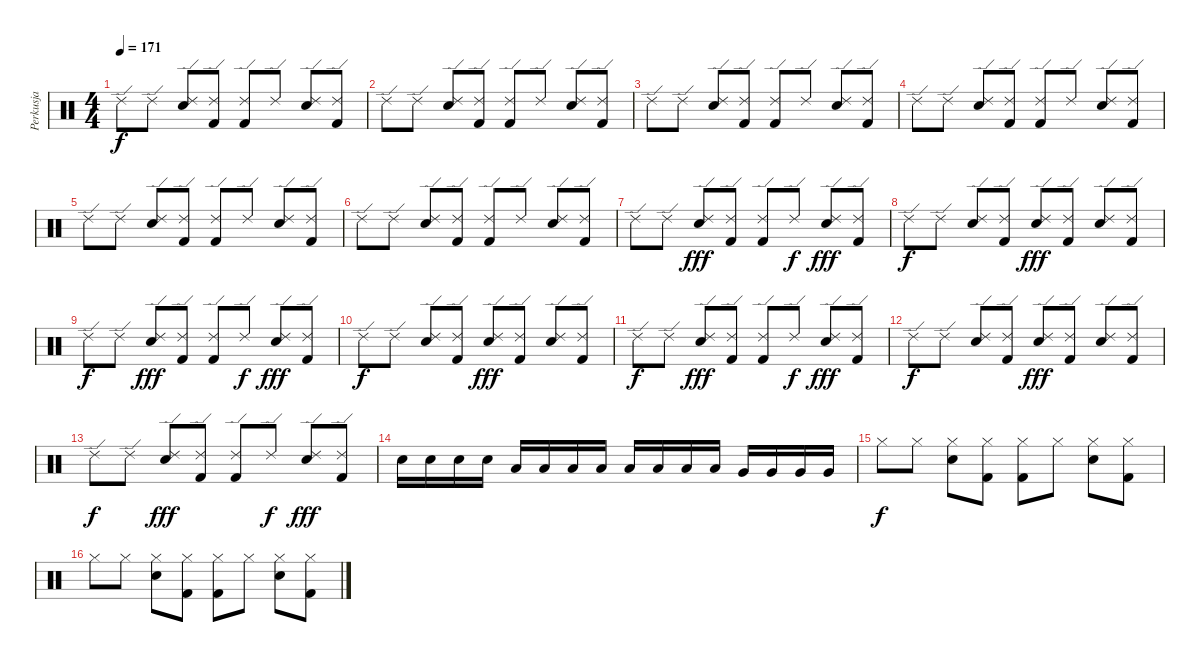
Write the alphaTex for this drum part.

\track ("Perkusja" "Perkusja") {instrument percussion}
\staff {score}
\articulation defaults
\ts (4 4)
\tempo 171
\clef neutral
\ks c "Ride (edge) 2".8{dy f} "Ride (edge) 2".8
("Ride (edge) 2" "Snare (hit) 2").8 ("Ride (edge) 2" "Kick (hit) 2").8 ("Ride (edge) 2" "Kick (hit) 2").8 "Ride (edge) 2".8 ("Ride (edge) 2" "Snare (hit) 2").8 ("Ride (edge) 2" "Kick (hit) 2").8 |
"Ride (edge) 2".8 "Ride (edge) 2".8 ("Ride (edge) 2" "Snare (hit) 2").8 ("Ride (edge) 2" "Kick (hit) 2").8 ("Ride (edge) 2" "Kick (hit) 2").8 "Ride (edge) 2".8 ("Ride (edge) 2" "Snare (hit) 2").8 ("Ride (edge) 2" "Kick (hit) 2").8 |
"Ride (edge) 2".8 "Ride (edge) 2".8 ("Ride (edge) 2" "Snare (hit) 2").8 ("Ride (edge) 2" "Kick (hit) 2").8 ("Ride (edge) 2" "Kick (hit) 2").8 "Ride (edge) 2".8 ("Ride (edge) 2" "Snare (hit) 2").8 ("Ride (edge) 2" "Kick (hit) 2").8 |
"Ride (edge) 2".8 "Ride (edge) 2".8 ("Ride (edge) 2" "Snare (hit) 2").8 ("Ride (edge) 2" "Kick (hit) 2").8 ("Ride (edge) 2" "Kick (hit) 2").8 "Ride (edge) 2".8 ("Ride (edge) 2" "Snare (hit) 2").8 ("Ride (edge) 2" "Kick (hit) 2").8 |
"Ride (edge) 2".8 "Ride (edge) 2".8 ("Ride (edge) 2" "Snare (hit) 2").8 ("Ride (edge) 2" "Kick (hit) 2").8 ("Ride (edge) 2" "Kick (hit) 2").8 "Ride (edge) 2".8 ("Ride (edge) 2" "Snare (hit) 2").8 ("Ride (edge) 2" "Kick (hit) 2").8 |
"Ride (edge) 2".8 "Ride (edge) 2".8 ("Ride (edge) 2" "Snare (hit) 2").8 ("Ride (edge) 2" "Kick (hit) 2").8 ("Ride (edge) 2" "Kick (hit) 2").8 "Ride (edge) 2".8 ("Ride (edge) 2" "Snare (hit) 2").8 ("Ride (edge) 2" "Kick (hit) 2").8 |
"Ride (edge) 2".8 "Ride (edge) 2".8 ("Ride (edge) 2" "Snare (hit) 2").8{dy fff} ("Ride (edge) 2" "Kick (hit) 2").8 ("Ride (edge) 2" "Kick (hit) 2").8 "Ride (edge) 2".8{dy f} ("Ride (edge) 2" "Snare (hit) 2").8{dy fff} ("Ride (edge) 2" "Kick (hit) 2").8 |
"Ride (edge) 2".8{dy f} "Ride (edge) 2".8 ("Ride (edge) 2" "Snare (hit) 2").8 ("Ride (edge) 2" "Kick (hit) 2").8 ("Ride (edge) 2" "Snare (hit) 2").8{dy fff} ("Ride (edge) 2" "Kick (hit) 2").8 ("Ride (edge) 2" "Snare (hit) 2").8 ("Ride (edge) 2" "Kick (hit) 2").8 |
"Ride (edge) 2".8{dy f} "Ride (edge) 2".8 ("Ride (edge) 2" "Snare (hit) 2").8{dy fff} ("Ride (edge) 2" "Kick (hit) 2").8 ("Ride (edge) 2" "Kick (hit) 2").8 "Ride (edge) 2".8{dy f} ("Ride (edge) 2" "Snare (hit) 2").8{dy fff} ("Ride (edge) 2" "Kick (hit) 2").8 |
"Ride (edge) 2".8{dy f} "Ride (edge) 2".8 ("Ride (edge) 2" "Snare (hit) 2").8 ("Ride (edge) 2" "Kick (hit) 2").8 ("Ride (edge) 2" "Snare (hit) 2").8{dy fff} ("Ride (edge) 2" "Kick (hit) 2").8 ("Ride (edge) 2" "Snare (hit) 2").8 ("Ride (edge) 2" "Kick (hit) 2").8 |
"Ride (edge) 2".8{dy f} "Ride (edge) 2".8 ("Ride (edge) 2" "Snare (hit) 2").8{dy fff} ("Ride (edge) 2" "Kick (hit) 2").8 ("Ride (edge) 2" "Kick (hit) 2").8 "Ride (edge) 2".8{dy f} ("Ride (edge) 2" "Snare (hit) 2").8{dy fff} ("Ride (edge) 2" "Kick (hit) 2").8 |
"Ride (edge) 2".8{dy f} "Ride (edge) 2".8 ("Ride (edge) 2" "Snare (hit) 2").8 ("Ride (edge) 2" "Kick (hit) 2").8 ("Ride (edge) 2" "Snare (hit) 2").8{dy fff} ("Ride (edge) 2" "Kick (hit) 2").8 ("Ride (edge) 2" "Snare (hit) 2").8 ("Ride (edge) 2" "Kick (hit) 2").8 |
"Ride (edge) 2".8{dy f} "Ride (edge) 2".8 ("Ride (edge) 2" "Snare (hit) 2").8{dy fff} ("Ride (edge) 2" "Kick (hit) 2").8 ("Ride (edge) 2" "Kick (hit) 2").8 "Ride (edge) 2".8{dy f} ("Ride (edge) 2" "Snare (hit) 2").8{dy fff} ("Ride (edge) 2" "Kick (hit) 2").8 |
"Snare (hit) 2".16 "Snare (hit) 2".16 "Snare (hit) 2".16 "Snare (hit) 2".16 "Low Tom (hit)".16 "Low Tom (hit)".16 "Low Tom (hit)".16 "Low Tom (hit)".16 "Low Tom (hit)".16 "Low Tom (hit)".16 "Low Tom (hit)".16 "Low Tom (hit)".16 "Very Low Tom (hit)".16 "Very Low Tom (hit)".16 "Very Low Tom (hit)".16 "Very Low Tom (hit)".16 |
"Hi-Hat (closed)".8{dy f} "Hi-Hat (closed)".8 ("Hi-Hat (closed)" "Snare (hit) 2").8 ("Hi-Hat (closed)" "Kick (hit) 2").8 ("Hi-Hat (closed)" "Kick (hit) 2").8 "Hi-Hat (closed)".8 ("Hi-Hat (closed)" "Snare (hit) 2").8 ("Hi-Hat (closed)" "Kick (hit) 2").8 |
"Hi-Hat (closed)".8 "Hi-Hat (closed)".8 ("Hi-Hat (closed)" "Snare (hit) 2").8 ("Hi-Hat (closed)" "Kick (hit) 2").8 ("Hi-Hat (closed)" "Kick (hit) 2").8 "Hi-Hat (closed)".8 ("Hi-Hat (closed)" "Snare (hit) 2").8 ("Hi-Hat (closed)" "Kick (hit) 2").8
